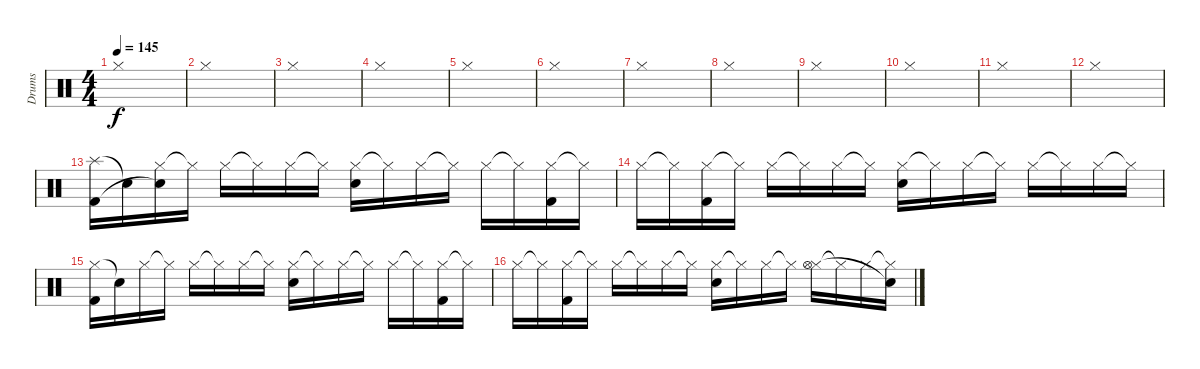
\track ("Drums" "Drums") {instrument percussion}
\staff {score}
\articulation defaults
\ts (4 4)
\tempo 145
\clef neutral
\ks c "Hi-Hat (closed)".1{dy f}
|
"Hi-Hat (closed)".1 |
"Hi-Hat (closed)".1 |
"Hi-Hat (closed)".1 |
"Hi-Hat (closed)".1 |
"Hi-Hat (closed)".1 |
"Hi-Hat (closed)".1 |
"Hi-Hat (closed)".1 |
"Hi-Hat (closed)".1 |
"Hi-Hat (closed)".1 |
"Hi-Hat (closed)".1 |
"Hi-Hat (closed)".1 |
("Splash (hit)" "Kick (hit) 2").16 "Snare (hit)"{t}.16 ("Hi-Hat (closed)" "Snare (hit)"{t}).16 "Hi-Hat (closed)"{t}.16 "Hi-Hat (closed)".16 "Hi-Hat (closed)"{t}.16 "Hi-Hat (closed)".16 "Hi-Hat (closed)"{t}.16 ("Hi-Hat (closed)" "Snare (hit) 2").16 "Hi-Hat (closed)"{t}.16 "Hi-Hat (closed)".16 "Hi-Hat (closed)"{t}.16 "Hi-Hat (closed)".16 "Hi-Hat (closed)"{t}.16 ("Hi-Hat (closed)" "Kick (hit) 2").16 "Hi-Hat (closed)"{t}.16 |
"Hi-Hat (closed)".16 "Hi-Hat (closed)"{t}.16 ("Hi-Hat (closed)" "Kick (hit) 2").16 "Hi-Hat (closed)"{t}.16 "Hi-Hat (closed)".16 "Hi-Hat (closed)"{t}.16 "Hi-Hat (closed)".16 "Hi-Hat (closed)"{t}.16 ("Hi-Hat (closed)" "Snare (hit) 2").16 "Hi-Hat (closed)"{t}.16 "Hi-Hat (closed)".16 "Hi-Hat (closed)"{t}.16 "Hi-Hat (closed)".16 "Hi-Hat (closed)"{t}.16 "Hi-Hat (closed)".16 "Hi-Hat (closed)"{t}.16 |
("Hi-Hat (closed)" "Kick (hit) 2").16 "Snare (hit)"{t}.16 "Hi-Hat (closed)".16 "Hi-Hat (closed)"{t}.16 "Hi-Hat (closed)".16 "Hi-Hat (closed)"{t}.16 "Hi-Hat (closed)".16 "Hi-Hat (closed)"{t}.16 ("Hi-Hat (closed)" "Snare (hit) 2").16 "Hi-Hat (closed)"{t}.16 "Hi-Hat (closed)".16 "Hi-Hat (closed)"{t}.16 "Hi-Hat (closed)".16 "Hi-Hat (closed)"{t}.16 ("Hi-Hat (closed)" "Kick (hit) 2").16 "Hi-Hat (closed)"{t}.16 |
"Hi-Hat (closed)".16 "Hi-Hat (closed)"{t}.16 ("Hi-Hat (closed)" "Kick (hit) 2").16 "Hi-Hat (closed)"{t}.16 "Hi-Hat (closed)".16 "Hi-Hat (closed)"{t}.16 "Hi-Hat (closed)".16 "Hi-Hat (closed)"{t}.16 ("Hi-Hat (closed)" "Snare (hit) 2").16 "Hi-Hat (closed)"{t}.16 "Hi-Hat (closed)".16 "Hi-Hat (closed)"{t}.16 ("Hi-Hat (closed)" "Hi-Hat (open)").16 "Hi-Hat (closed)"{t}.16 "Hi-Hat (closed)".16 ("Hi-Hat (closed)"{t} "Snare (hit)"{t}).16
